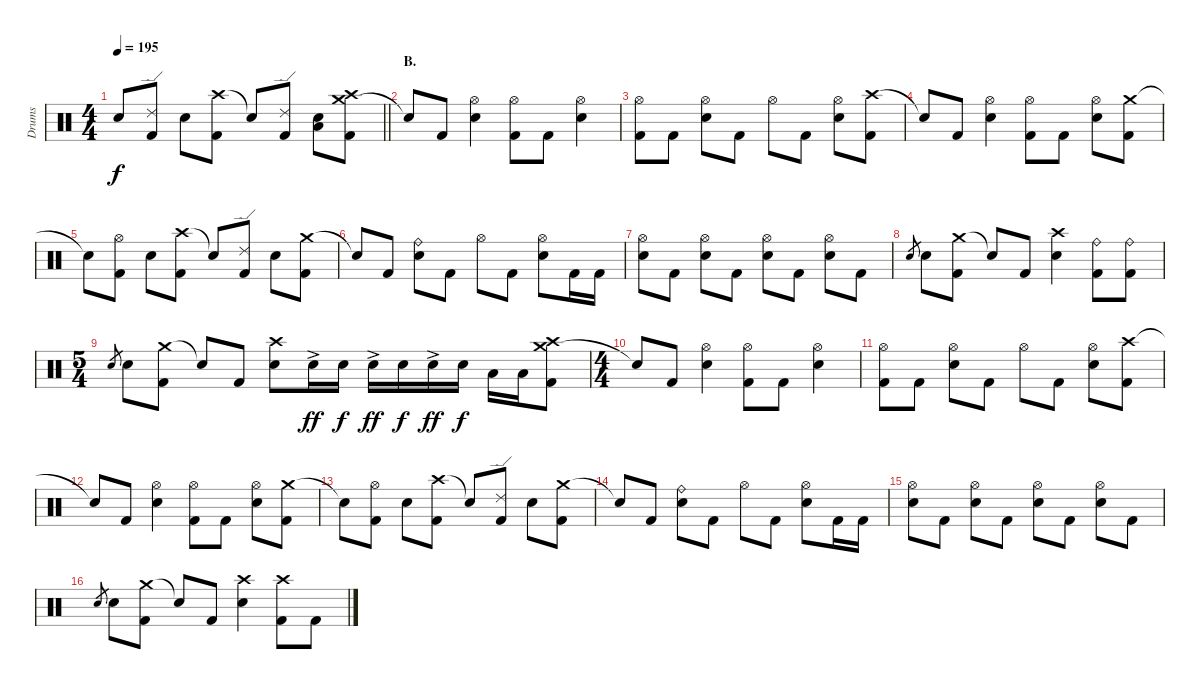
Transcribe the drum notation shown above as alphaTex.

\track ("Drums" "Drums") {instrument percussion}
\staff {score}
\articulation defaults
\ts (4 4)
\tempo 195
\clef neutral
\barLineRight lightlight
\ks c "Snare (hit)"{t}.8{dy f}
("Ride (edge) 2" "Kick (hit) 2").8 "Electric Snare (hit)".8 ("Crash high (hit)" "Kick (hit) 2").8 "Snare (hit)"{t}.8 ("Ride (edge) 2" "Kick (hit) 2").8 ("Low Tom (hit)" "Electric Snare (hit)").8{bu 120} ("Crash medium (hit)" "Crash high (hit)" "Kick (hit) 2").8 |
\section ("" "B.")
"Snare (hit)"{t}.8 "Kick (hit) 2".8 ("Hi-Hat (open)" "Electric Snare (hit)").4 ("Hi-Hat (open)" "Kick (hit) 2").8 "Kick (hit) 2".8 ("Hi-Hat (open)" "Electric Snare (hit)").4 |
("Hi-Hat (open)" "Kick (hit) 2").8 "Kick (hit) 2".8 ("Hi-Hat (open)" "Electric Snare (hit)").8 "Kick (hit) 2".8 "Hi-Hat (open)".8 "Kick (hit) 2".8 ("Hi-Hat (open)" "Electric Snare (hit)").8 ("Crash high (hit)" "Kick (hit) 2").8 |
"Snare (hit)"{t}.8 "Kick (hit) 2".8 ("Hi-Hat (open)" "Electric Snare (hit)").4 ("Hi-Hat (open)" "Kick (hit) 2").8 "Kick (hit) 2".8 ("Hi-Hat (open)" "Electric Snare (hit)").8 ("Crash medium (hit)" "Kick (hit) 2").8 |
"Snare (hit)"{t}.8 ("Hi-Hat (open)" "Kick (hit) 2").8 "Electric Snare (hit)".8 ("Crash high (hit)" "Kick (hit) 2").8 "Snare (hit)"{t}.8 ("Ride (edge) 2" "Kick (hit) 2").8 "Electric Snare (hit)".8 ("Crash medium (hit)" "Kick (hit) 2").8 |
"Snare (hit)"{t}.8 "Kick (hit) 2".8 ("Ride (bell)" "Electric Snare (hit)").8 "Kick (hit) 2".8 "Hi-Hat (open)".8 "Kick (hit) 2".8 ("Hi-Hat (open)" "Electric Snare (hit)").8 "Kick (hit) 2".16 "Kick (hit) 2".16 |
("Hi-Hat (open)" "Electric Snare (hit)").8 "Kick (hit) 2".8 ("Hi-Hat (open)" "Electric Snare (hit)").8 "Kick (hit) 2".8 ("Hi-Hat (open)" "Electric Snare (hit)").8 "Kick (hit) 2".8 ("Hi-Hat (open)" "Electric Snare (hit)").8 "Kick (hit) 2".8 |
"Electric Snare (hit)".8{gr} "Electric Snare (hit)".8 ("Crash medium (hit)" "Kick (hit) 2").8 "Snare (hit)"{t}.8 "Kick (hit) 2".8 ("Crash high (hit)" "Electric Snare (hit)").4 ("Ride (bell)" "Kick (hit) 2").8 ("Ride (bell)" "Kick (hit) 2").8 |
\ts (5 4)
"Electric Snare (hit)".8{gr} "Electric Snare (hit)".8 ("Crash medium (hit)" "Kick (hit) 2").8 "Snare (hit)"{t}.8 "Kick (hit) 2".8 ("Crash high (hit)" "Electric Snare (hit)").8 "Electric Snare (hit)"{ac}.16{dy ff} "Electric Snare (hit)".16{dy f} "Electric Snare (hit)"{ac}.16{dy ff} "Electric Snare (hit)".16{dy f} "Electric Snare (hit)"{ac}.16{dy ff} "Electric Snare (hit)".16{dy f} "Low Tom (hit)".16 "Low Tom (hit)".16 ("Crash medium (hit)" "Crash high (hit)" "Kick (hit) 2").8 |
\ts (4 4)
"Snare (hit)"{t}.8 "Kick (hit) 2".8 ("Hi-Hat (open)" "Electric Snare (hit)").4 ("Hi-Hat (open)" "Kick (hit) 2").8 "Kick (hit) 2".8 ("Hi-Hat (open)" "Electric Snare (hit)").4 |
("Hi-Hat (open)" "Kick (hit) 2").8 "Kick (hit) 2".8 ("Hi-Hat (open)" "Electric Snare (hit)").8 "Kick (hit) 2".8 "Hi-Hat (open)".8 "Kick (hit) 2".8 ("Hi-Hat (open)" "Electric Snare (hit)").8 ("Crash high (hit)" "Kick (hit) 2").8 |
"Snare (hit)"{t}.8 "Kick (hit) 2".8 ("Hi-Hat (open)" "Electric Snare (hit)").4 ("Hi-Hat (open)" "Kick (hit) 2").8 "Kick (hit) 2".8 ("Hi-Hat (open)" "Electric Snare (hit)").8 ("Crash medium (hit)" "Kick (hit) 2").8 |
"Snare (hit)"{t}.8 ("Hi-Hat (open)" "Kick (hit) 2").8 "Electric Snare (hit)".8 ("Crash high (hit)" "Kick (hit) 2").8 "Snare (hit)"{t}.8 ("Ride (edge) 2" "Kick (hit) 2").8 "Electric Snare (hit)".8 ("Crash medium (hit)" "Kick (hit) 2").8 |
"Snare (hit)"{t}.8 "Kick (hit) 2".8 ("Ride (bell)" "Electric Snare (hit)").8 "Kick (hit) 2".8 "Hi-Hat (open)".8 "Kick (hit) 2".8 ("Hi-Hat (open)" "Electric Snare (hit)").8 "Kick (hit) 2".16 "Kick (hit) 2".16 |
("Hi-Hat (open)" "Electric Snare (hit)").8 "Kick (hit) 2".8 ("Hi-Hat (open)" "Electric Snare (hit)").8 "Kick (hit) 2".8 ("Hi-Hat (open)" "Electric Snare (hit)").8 "Kick (hit) 2".8 ("Hi-Hat (open)" "Electric Snare (hit)").8 "Kick (hit) 2".8 |
"Electric Snare (hit)".8{gr} "Electric Snare (hit)".8 ("Crash medium (hit)" "Kick (hit) 2").8 "Snare (hit)"{t}.8 "Kick (hit) 2".8 ("Crash high (hit)" "Electric Snare (hit)").4 ("Crash high (hit)" "Kick (hit) 2").8 "Kick (hit) 2".8
